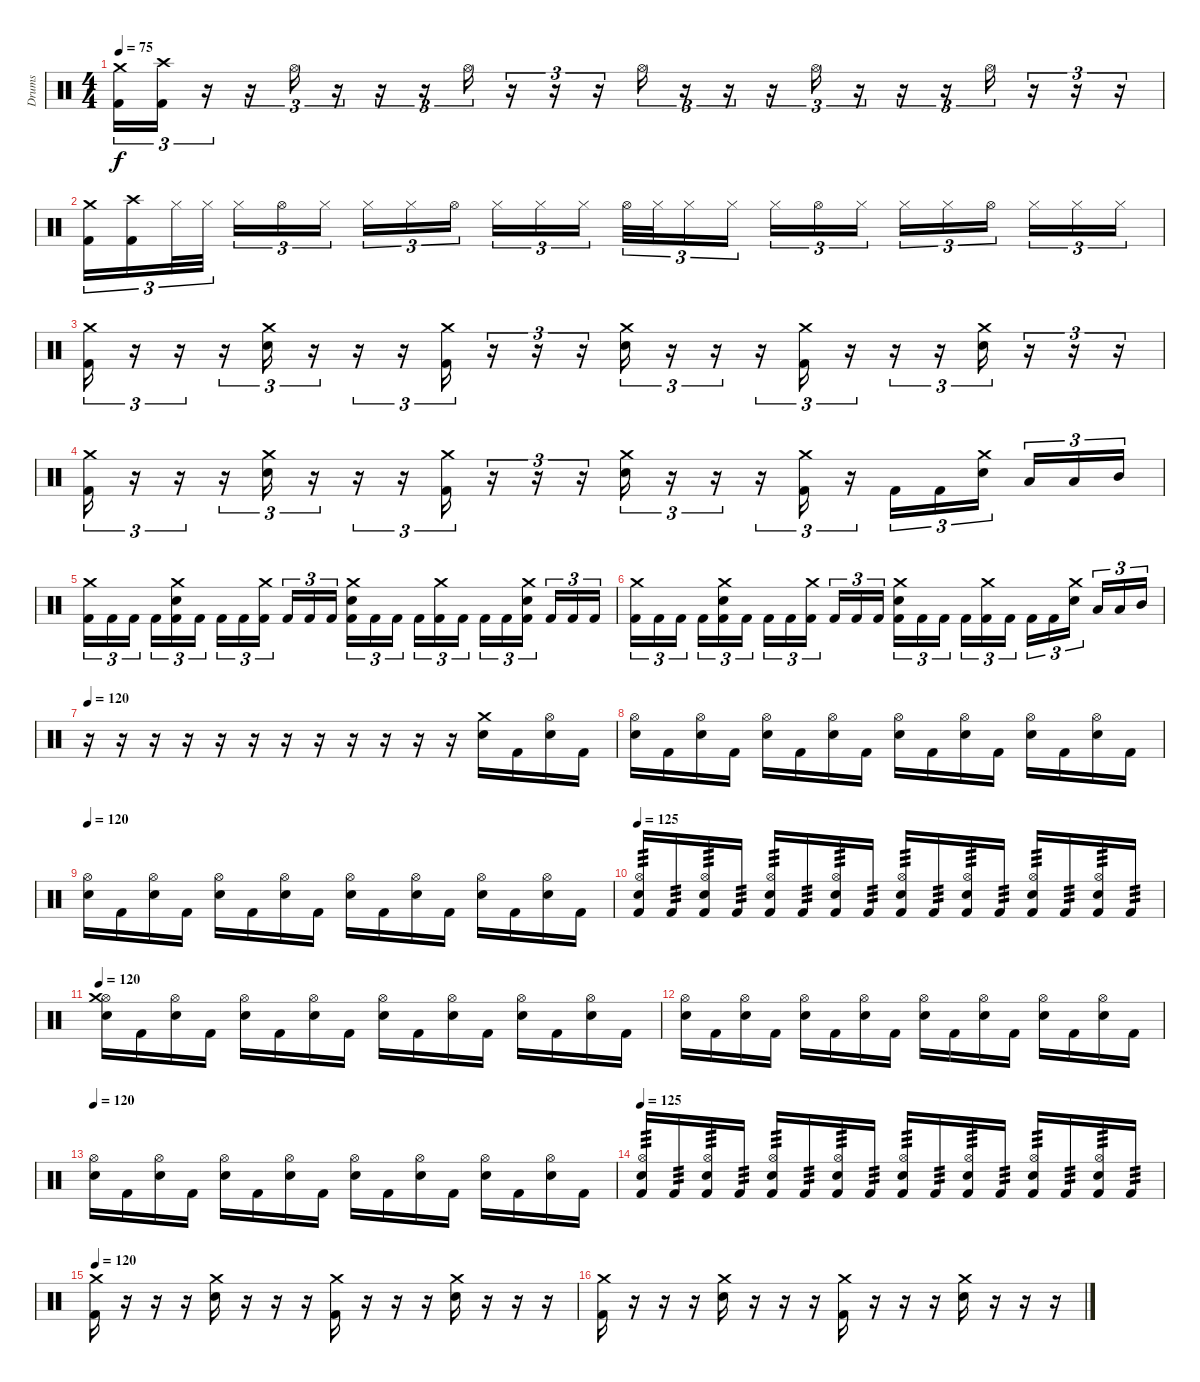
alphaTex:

\track ("Drums" "Drums") {instrument percussion}
\staff {score}
\articulation defaults
\ts (4 4)
\tempo 75
\clef neutral
\ks c
("Crash medium (hit)" "Kick (hit) 2").16{tu (3 2) dy f} ("Crash high (hit)" "Kick (hit) 2").16{tu (3 2)} r.16{tu (3 2)} r.16{tu (3 2)} "Hi-Hat (open)".16{tu (3 2)} r.16{tu (3 2)} r.16{tu (3 2)} r.16{tu (3 2)} "Hi-Hat (open)".16{tu (3 2)} r.16{tu (3 2)} r.16{tu (3 2)} r.16{tu (3 2)} "Hi-Hat (open)".16{tu (3 2)} r.16{tu (3 2)} r.16{tu (3 2)} r.16{tu (3 2)} "Hi-Hat (open)".16{tu (3 2)} r.16{tu (3 2)} r.16{tu (3 2)} r.16{tu (3 2)} "Hi-Hat (open)".16{tu (3 2)} r.16{tu (3 2)} r.16{tu (3 2)} r.16{tu (3 2)} |
("Crash medium (hit)" "Kick (hit) 2").16{tu (3 2)} ("Crash high (hit)" "Kick (hit) 2").16{tu (3 2)} "Hi-Hat (closed)".32{tu (3 2)} "Hi-Hat (closed)".32{tu (3 2)} "Hi-Hat (closed)".16{tu (3 2)} "Hi-Hat (open)".16{tu (3 2)} "Hi-Hat (closed)".16{tu (3 2)} "Hi-Hat (closed)".16{tu (3 2)} "Hi-Hat (closed)".16{tu (3 2)} "Hi-Hat (open)".16{tu (3 2)} "Hi-Hat (closed)".16{tu (3 2)} "Hi-Hat (closed)".16{tu (3 2)} "Hi-Hat (closed)".16{tu (3 2)} "Hi-Hat (open)".32{tu (3 2)} "Hi-Hat (closed)".32{tu (3 2)} "Hi-Hat (closed)".16{tu (3 2)} "Hi-Hat (closed)".16{tu (3 2)} "Hi-Hat (closed)".16{tu (3 2)} "Hi-Hat (open)".16{tu (3 2)} "Hi-Hat (closed)".16{tu (3 2)} "Hi-Hat (closed)".16{tu (3 2)} "Hi-Hat (closed)".16{tu (3 2)} "Hi-Hat (open)".16{tu (3 2)} "Hi-Hat (closed)".16{tu (3 2)} "Hi-Hat (closed)".16{tu (3 2)} "Hi-Hat (closed)".16{tu (3 2)} |
("Crash medium (hit)" "Kick (hit) 2").16{tu (3 2)} r.16{tu (3 2)} r.16{tu (3 2)} r.16{tu (3 2)} ("Crash medium (hit)" "Electric Snare (hit)").16{tu (3 2)} r.16{tu (3 2)} r.16{tu (3 2)} r.16{tu (3 2)} ("Crash medium (hit)" "Kick (hit) 2").16{tu (3 2)} r.16{tu (3 2)} r.16{tu (3 2)} r.16{tu (3 2)} ("Crash medium (hit)" "Electric Snare (hit)").16{tu (3 2)} r.16{tu (3 2)} r.16{tu (3 2)} r.16{tu (3 2)} ("Crash medium (hit)" "Kick (hit) 2").16{tu (3 2)} r.16{tu (3 2)} r.16{tu (3 2)} r.16{tu (3 2)} ("Crash medium (hit)" "Electric Snare (hit)").16{tu (3 2)} r.16{tu (3 2)} r.16{tu (3 2)} r.16{tu (3 2)} |
("Crash medium (hit)" "Kick (hit) 2").16{tu (3 2)} r.16{tu (3 2)} r.16{tu (3 2)} r.16{tu (3 2)} ("Crash medium (hit)" "Electric Snare (hit)").16{tu (3 2)} r.16{tu (3 2)} r.16{tu (3 2)} r.16{tu (3 2)} ("Crash medium (hit)" "Kick (hit) 2").16{tu (3 2)} r.16{tu (3 2)} r.16{tu (3 2)} r.16{tu (3 2)} ("Crash medium (hit)" "Electric Snare (hit)").16{tu (3 2)} r.16{tu (3 2)} r.16{tu (3 2)} r.16{tu (3 2)} ("Crash medium (hit)" "Kick (hit) 2").16{tu (3 2)} r.16{tu (3 2)} "Kick (hit) 2".16{tu (3 2)} "Kick (hit) 2".16{tu (3 2)} ("Crash medium (hit)" "Electric Snare (hit)").16{tu (3 2)} "Low Tom (hit)".16{tu (3 2)} "Low Tom (hit)".16{tu (3 2)} "Mid Tom (hit)".16{tu (3 2)} |
("Crash medium (hit)" "Kick (hit) 2").16{tu (3 2)} "Kick (hit) 2".16{tu (3 2)} "Kick (hit) 2".16{tu (3 2)} "Kick (hit) 2".16{tu (3 2)} ("Crash medium (hit)" "Electric Snare (hit)" "Kick (hit) 2").16{tu (3 2)} "Kick (hit) 2".16{tu (3 2)} "Kick (hit) 2".16{tu (3 2)} "Kick (hit) 2".16{tu (3 2)} ("Crash medium (hit)" "Kick (hit) 2").16{tu (3 2)} "Kick (hit) 2".16{tu (3 2)} "Kick (hit) 2".16{tu (3 2)} "Kick (hit) 2".16{tu (3 2)} ("Crash medium (hit)" "Electric Snare (hit)" "Kick (hit) 2").16{tu (3 2)} "Kick (hit) 2".16{tu (3 2)} "Kick (hit) 2".16{tu (3 2)} "Kick (hit) 2".16{tu (3 2)} ("Crash medium (hit)" "Kick (hit) 2").16{tu (3 2)} "Kick (hit) 2".16{tu (3 2)} "Kick (hit) 2".16{tu (3 2)} "Kick (hit) 2".16{tu (3 2)} ("Crash medium (hit)" "Electric Snare (hit)" "Kick (hit) 2").16{tu (3 2)} "Kick (hit) 2".16{tu (3 2)} "Kick (hit) 2".16{tu (3 2)} "Kick (hit) 2".16{tu (3 2)} |
("Crash medium (hit)" "Kick (hit) 2").16{tu (3 2)} "Kick (hit) 2".16{tu (3 2)} "Kick (hit) 2".16{tu (3 2)} "Kick (hit) 2".16{tu (3 2)} ("Crash medium (hit)" "Electric Snare (hit)" "Kick (hit) 2").16{tu (3 2)} "Kick (hit) 2".16{tu (3 2)} "Kick (hit) 2".16{tu (3 2)} "Kick (hit) 2".16{tu (3 2)} ("Crash medium (hit)" "Kick (hit) 2").16{tu (3 2)} "Kick (hit) 2".16{tu (3 2)} "Kick (hit) 2".16{tu (3 2)} "Kick (hit) 2".16{tu (3 2)} ("Crash medium (hit)" "Electric Snare (hit)" "Kick (hit) 2").16{tu (3 2)} "Kick (hit) 2".16{tu (3 2)} "Kick (hit) 2".16{tu (3 2)} "Kick (hit) 2".16{tu (3 2)} ("Crash medium (hit)" "Kick (hit) 2").16{tu (3 2)} "Kick (hit) 2".16{tu (3 2)} "Kick (hit) 2".16{tu (3 2)} "Kick (hit) 2".16{tu (3 2)} ("Crash medium (hit)" "Electric Snare (hit)").16{tu (3 2)} "Low Tom (hit)".16{tu (3 2)} "Low Tom (hit)".16{tu (3 2)} "Mid Tom (hit)".16{tu (3 2)} |
\tempo 120
r.16 r.16 r.16 r.16 r.16 r.16 r.16 r.16 r.16 r.16 r.16 r.16 ("Crash medium (hit)" "Electric Snare (hit)").16 "Kick (hit) 2".16 ("Hi-Hat (open)" "Electric Snare (hit)").16 "Kick (hit) 2".16 |
("Hi-Hat (open)" "Electric Snare (hit)").16 "Kick (hit) 2".16 ("Hi-Hat (open)" "Electric Snare (hit)").16 "Kick (hit) 2".16 ("Hi-Hat (open)" "Electric Snare (hit)").16 "Kick (hit) 2".16 ("Hi-Hat (open)" "Electric Snare (hit)").16 "Kick (hit) 2".16 ("Hi-Hat (open)" "Electric Snare (hit)").16 "Kick (hit) 2".16 ("Hi-Hat (open)" "Electric Snare (hit)").16 "Kick (hit) 2".16 ("Hi-Hat (open)" "Electric Snare (hit)").16 "Kick (hit) 2".16 ("Hi-Hat (open)" "Electric Snare (hit)").16 "Kick (hit) 2".16 |
\tempo 120
("Hi-Hat (open)" "Electric Snare (hit)").16 "Kick (hit) 2".16 ("Hi-Hat (open)" "Electric Snare (hit)").16 "Kick (hit) 2".16 ("Hi-Hat (open)" "Electric Snare (hit)").16 "Kick (hit) 2".16 ("Hi-Hat (open)" "Electric Snare (hit)").16 "Kick (hit) 2".16 ("Hi-Hat (open)" "Electric Snare (hit)").16 "Kick (hit) 2".16 ("Hi-Hat (open)" "Electric Snare (hit)").16 "Kick (hit) 2".16 ("Hi-Hat (open)" "Electric Snare (hit)").16 "Kick (hit) 2".16 ("Hi-Hat (open)" "Electric Snare (hit)").16 "Kick (hit) 2".16 |
\tempo 125
("Hi-Hat (open)" "Electric Snare (hit)" "Kick (hit) 2").16{tp 3} "Kick (hit) 2".16{tp 3} ("Hi-Hat (open)" "Electric Snare (hit)" "Kick (hit) 2").16{tp 3} "Kick (hit) 2".16{tp 3} ("Hi-Hat (open)" "Electric Snare (hit)" "Kick (hit) 2").16{tp 3} "Kick (hit) 2".16{tp 3} ("Hi-Hat (open)" "Electric Snare (hit)" "Kick (hit) 2").16{tp 3} "Kick (hit) 2".16{tp 3} ("Hi-Hat (open)" "Electric Snare (hit)" "Kick (hit) 2").16{tp 3} "Kick (hit) 2".16{tp 3} ("Hi-Hat (open)" "Electric Snare (hit)" "Kick (hit) 2").16{tp 3} "Kick (hit) 2".16{tp 3} ("Hi-Hat (open)" "Electric Snare (hit)" "Kick (hit) 2").16{tp 3} "Kick (hit) 2".16{tp 3} ("Hi-Hat (open)" "Electric Snare (hit)" "Kick (hit) 2").16{tp 3} "Kick (hit) 2".16{tp 3} |
\tempo 120
("Hi-Hat (open)" "Electric Snare (hit)" "Crash medium (hit)").16 "Kick (hit) 2".16 ("Hi-Hat (open)" "Electric Snare (hit)").16 "Kick (hit) 2".16 ("Hi-Hat (open)" "Electric Snare (hit)").16 "Kick (hit) 2".16 ("Hi-Hat (open)" "Electric Snare (hit)").16 "Kick (hit) 2".16 ("Hi-Hat (open)" "Electric Snare (hit)").16 "Kick (hit) 2".16 ("Hi-Hat (open)" "Electric Snare (hit)").16 "Kick (hit) 2".16 ("Hi-Hat (open)" "Electric Snare (hit)").16 "Kick (hit) 2".16 ("Hi-Hat (open)" "Electric Snare (hit)").16 "Kick (hit) 2".16 |
("Hi-Hat (open)" "Electric Snare (hit)").16 "Kick (hit) 2".16 ("Hi-Hat (open)" "Electric Snare (hit)").16 "Kick (hit) 2".16 ("Hi-Hat (open)" "Electric Snare (hit)").16 "Kick (hit) 2".16 ("Hi-Hat (open)" "Electric Snare (hit)").16 "Kick (hit) 2".16 ("Hi-Hat (open)" "Electric Snare (hit)").16 "Kick (hit) 2".16 ("Hi-Hat (open)" "Electric Snare (hit)").16 "Kick (hit) 2".16 ("Hi-Hat (open)" "Electric Snare (hit)").16 "Kick (hit) 2".16 ("Hi-Hat (open)" "Electric Snare (hit)").16 "Kick (hit) 2".16 |
\tempo 120
("Hi-Hat (open)" "Electric Snare (hit)").16 "Kick (hit) 2".16 ("Hi-Hat (open)" "Electric Snare (hit)").16 "Kick (hit) 2".16 ("Hi-Hat (open)" "Electric Snare (hit)").16 "Kick (hit) 2".16 ("Hi-Hat (open)" "Electric Snare (hit)").16 "Kick (hit) 2".16 ("Hi-Hat (open)" "Electric Snare (hit)").16 "Kick (hit) 2".16 ("Hi-Hat (open)" "Electric Snare (hit)").16 "Kick (hit) 2".16 ("Hi-Hat (open)" "Electric Snare (hit)").16 "Kick (hit) 2".16 ("Hi-Hat (open)" "Electric Snare (hit)").16 "Kick (hit) 2".16 |
\tempo 125
("Hi-Hat (open)" "Electric Snare (hit)" "Kick (hit) 2").16{tp 3} "Kick (hit) 2".16{tp 3} ("Hi-Hat (open)" "Electric Snare (hit)" "Kick (hit) 2").16{tp 3} "Kick (hit) 2".16{tp 3} ("Hi-Hat (open)" "Electric Snare (hit)" "Kick (hit) 2").16{tp 3} "Kick (hit) 2".16{tp 3} ("Hi-Hat (open)" "Electric Snare (hit)" "Kick (hit) 2").16{tp 3} "Kick (hit) 2".16{tp 3} ("Hi-Hat (open)" "Electric Snare (hit)" "Kick (hit) 2").16{tp 3} "Kick (hit) 2".16{tp 3} ("Hi-Hat (open)" "Electric Snare (hit)" "Kick (hit) 2").16{tp 3} "Kick (hit) 2".16{tp 3} ("Hi-Hat (open)" "Electric Snare (hit)" "Kick (hit) 2").16{tp 3} "Kick (hit) 2".16{tp 3} ("Hi-Hat (open)" "Electric Snare (hit)" "Kick (hit) 2").16{tp 3} "Kick (hit) 2".16{tp 3} |
\tempo 120
("Crash medium (hit)" "Kick (hit) 2").16 r.16 r.16 r.16 ("Crash medium (hit)" "Electric Snare (hit)").16 r.16 r.16 r.16 ("Crash medium (hit)" "Kick (hit) 2").16 r.16 r.16 r.16 ("Crash medium (hit)" "Electric Snare (hit)").16 r.16 r.16 r.16 |
("Crash medium (hit)" "Kick (hit) 2").16 r.16 r.16 r.16 ("Crash medium (hit)" "Electric Snare (hit)").16 r.16 r.16 r.16 ("Crash medium (hit)" "Kick (hit) 2").16 r.16 r.16 r.16 ("Crash medium (hit)" "Electric Snare (hit)").16 r.16 r.16 r.16
